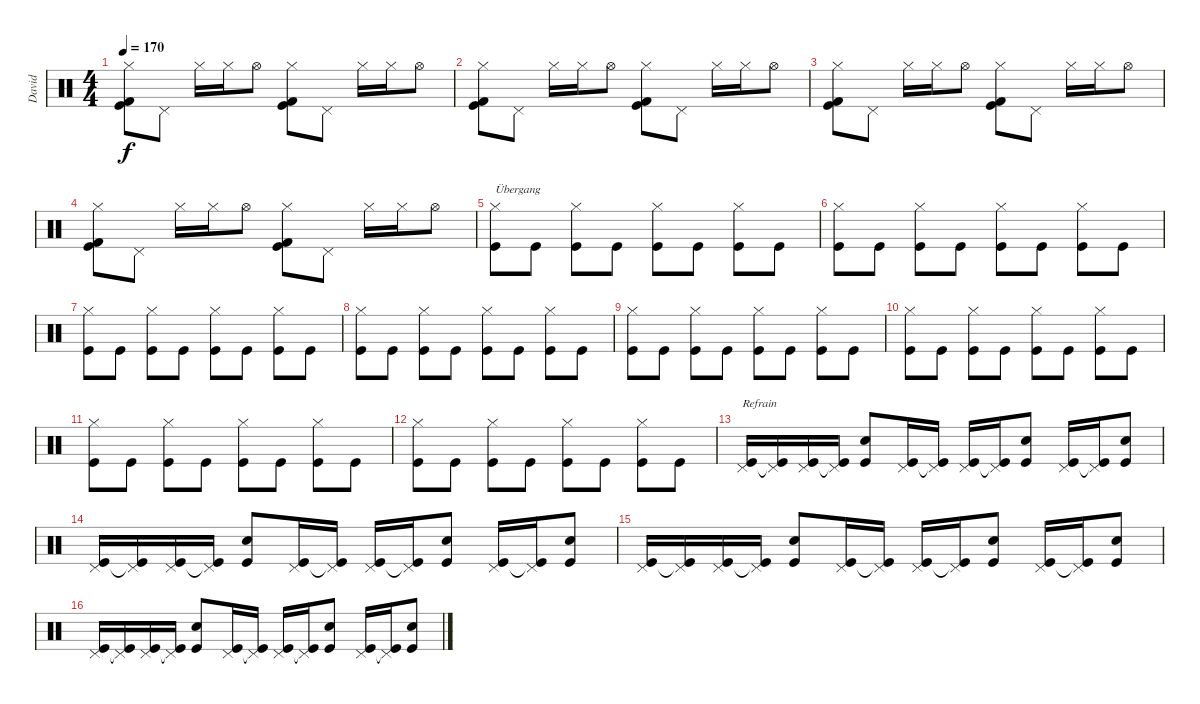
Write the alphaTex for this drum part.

\track ("David" "David") {instrument percussion}
\staff {score}
\articulation defaults
\ts (4 4)
\tempo 170
\clef neutral
\ks c
("Hi-Hat (closed)" "Kick (hit) 2" "Kick (hit)").8{dy f} "Pedal Hi-Hat (hit)".8 "Hi-Hat (closed)".16 "Hi-Hat (closed)".16 "Hi-Hat (open)".8 ("Hi-Hat (closed)" "Kick (hit) 2" "Kick (hit)").8 "Pedal Hi-Hat (hit)".8 "Hi-Hat (closed)".16 "Hi-Hat (closed)".16 "Hi-Hat (open)".8 |
("Hi-Hat (closed)" "Kick (hit) 2" "Kick (hit)").8 "Pedal Hi-Hat (hit)".8 "Hi-Hat (closed)".16 "Hi-Hat (closed)".16 "Hi-Hat (open)".8 ("Hi-Hat (closed)" "Kick (hit) 2" "Kick (hit)").8 "Pedal Hi-Hat (hit)".8 "Hi-Hat (closed)".16 "Hi-Hat (closed)".16 "Hi-Hat (open)".8 |
("Hi-Hat (closed)" "Kick (hit) 2" "Kick (hit)").8 "Pedal Hi-Hat (hit)".8 "Hi-Hat (closed)".16 "Hi-Hat (closed)".16 "Hi-Hat (open)".8 ("Hi-Hat (closed)" "Kick (hit) 2" "Kick (hit)").8 "Pedal Hi-Hat (hit)".8 "Hi-Hat (closed)".16 "Hi-Hat (closed)".16 "Hi-Hat (open)".8 |
("Hi-Hat (closed)" "Kick (hit) 2" "Kick (hit)").8 "Pedal Hi-Hat (hit)".8 "Hi-Hat (closed)".16 "Hi-Hat (closed)".16 "Hi-Hat (open)".8 ("Hi-Hat (closed)" "Kick (hit) 2" "Kick (hit)").8 "Pedal Hi-Hat (hit)".8 "Hi-Hat (closed)".16 "Hi-Hat (closed)".16 "Hi-Hat (open)".8 |
("Hi-Hat (closed)" "Kick (hit)").8{txt "Übergang"} "Kick (hit)".8 ("Hi-Hat (closed)" "Kick (hit)").8 "Kick (hit)".8 ("Hi-Hat (closed)" "Kick (hit)").8 "Kick (hit)".8 ("Hi-Hat (closed)" "Kick (hit)").8 "Kick (hit)".8 |
("Hi-Hat (closed)" "Kick (hit)").8 "Kick (hit)".8 ("Hi-Hat (closed)" "Kick (hit)").8 "Kick (hit)".8 ("Hi-Hat (closed)" "Kick (hit)").8 "Kick (hit)".8 ("Hi-Hat (closed)" "Kick (hit)").8 "Kick (hit)".8 |
("Hi-Hat (closed)" "Kick (hit)").8 "Kick (hit)".8 ("Hi-Hat (closed)" "Kick (hit)").8 "Kick (hit)".8 ("Hi-Hat (closed)" "Kick (hit)").8 "Kick (hit)".8 ("Hi-Hat (closed)" "Kick (hit)").8 "Kick (hit)".8 |
("Hi-Hat (closed)" "Kick (hit)").8 "Kick (hit)".8 ("Hi-Hat (closed)" "Kick (hit)").8 "Kick (hit)".8 ("Hi-Hat (closed)" "Kick (hit)").8 "Kick (hit)".8 ("Hi-Hat (closed)" "Kick (hit)").8 "Kick (hit)".8 |
("Hi-Hat (closed)" "Kick (hit)").8 "Kick (hit)".8 ("Hi-Hat (closed)" "Kick (hit)").8 "Kick (hit)".8 ("Hi-Hat (closed)" "Kick (hit)").8 "Kick (hit)".8 ("Hi-Hat (closed)" "Kick (hit)").8 "Kick (hit)".8 |
("Hi-Hat (closed)" "Kick (hit)").8 "Kick (hit)".8 ("Hi-Hat (closed)" "Kick (hit)").8 "Kick (hit)".8 ("Hi-Hat (closed)" "Kick (hit)").8 "Kick (hit)".8 ("Hi-Hat (closed)" "Kick (hit)").8 "Kick (hit)".8 |
("Hi-Hat (closed)" "Kick (hit)").8 "Kick (hit)".8 ("Hi-Hat (closed)" "Kick (hit)").8 "Kick (hit)".8 ("Hi-Hat (closed)" "Kick (hit)").8 "Kick (hit)".8 ("Hi-Hat (closed)" "Kick (hit)").8 "Kick (hit)".8 |
("Hi-Hat (closed)" "Kick (hit)").8 "Kick (hit)".8 ("Hi-Hat (closed)" "Kick (hit)").8 "Kick (hit)".8 ("Hi-Hat (closed)" "Kick (hit)").8 "Kick (hit)".8 ("Hi-Hat (closed)" "Kick (hit)").8 "Kick (hit)".8 |
("Pedal Hi-Hat (hit)" "Kick (hit)").16{txt "Refrain"} ("Pedal Hi-Hat (hit)" "Kick (hit)"{t}).16 ("Pedal Hi-Hat (hit)" "Kick (hit)").16 ("Pedal Hi-Hat (hit)" "Kick (hit)"{t}).16 ("Snare (hit) 2" "Kick (hit)").8 ("Pedal Hi-Hat (hit)" "Kick (hit)").16 ("Pedal Hi-Hat (hit)" "Kick (hit)"{t}).16 ("Pedal Hi-Hat (hit)" "Kick (hit)").16 ("Pedal Hi-Hat (hit)" "Kick (hit)"{t}).16 ("Snare (hit) 2" "Kick (hit)").8 ("Pedal Hi-Hat (hit)" "Kick (hit)").16 ("Pedal Hi-Hat (hit)" "Kick (hit)"{t}).16 ("Snare (hit) 2" "Kick (hit)").8 |
("Pedal Hi-Hat (hit)" "Kick (hit)").16 ("Pedal Hi-Hat (hit)" "Kick (hit)"{t}).16 ("Pedal Hi-Hat (hit)" "Kick (hit)").16 ("Pedal Hi-Hat (hit)" "Kick (hit)"{t}).16 ("Snare (hit) 2" "Kick (hit)").8 ("Pedal Hi-Hat (hit)" "Kick (hit)").16 ("Pedal Hi-Hat (hit)" "Kick (hit)"{t}).16 ("Pedal Hi-Hat (hit)" "Kick (hit)").16 ("Pedal Hi-Hat (hit)" "Kick (hit)"{t}).16 ("Snare (hit) 2" "Kick (hit)").8 ("Pedal Hi-Hat (hit)" "Kick (hit)").16 ("Pedal Hi-Hat (hit)" "Kick (hit)"{t}).16 ("Snare (hit) 2" "Kick (hit)").8 |
("Pedal Hi-Hat (hit)" "Kick (hit)").16 ("Pedal Hi-Hat (hit)" "Kick (hit)"{t}).16 ("Pedal Hi-Hat (hit)" "Kick (hit)").16 ("Pedal Hi-Hat (hit)" "Kick (hit)"{t}).16 ("Snare (hit) 2" "Kick (hit)").8 ("Pedal Hi-Hat (hit)" "Kick (hit)").16 ("Pedal Hi-Hat (hit)" "Kick (hit)"{t}).16 ("Pedal Hi-Hat (hit)" "Kick (hit)").16 ("Pedal Hi-Hat (hit)" "Kick (hit)"{t}).16 ("Snare (hit) 2" "Kick (hit)").8 ("Pedal Hi-Hat (hit)" "Kick (hit)").16 ("Pedal Hi-Hat (hit)" "Kick (hit)"{t}).16 ("Snare (hit) 2" "Kick (hit)").8 |
("Pedal Hi-Hat (hit)" "Kick (hit)").16 ("Pedal Hi-Hat (hit)" "Kick (hit)"{t}).16 ("Pedal Hi-Hat (hit)" "Kick (hit)").16 ("Pedal Hi-Hat (hit)" "Kick (hit)"{t}).16 ("Snare (hit) 2" "Kick (hit)").8 ("Pedal Hi-Hat (hit)" "Kick (hit)").16 ("Pedal Hi-Hat (hit)" "Kick (hit)"{t}).16 ("Pedal Hi-Hat (hit)" "Kick (hit)").16 ("Pedal Hi-Hat (hit)" "Kick (hit)"{t}).16 ("Snare (hit) 2" "Kick (hit)").8 ("Pedal Hi-Hat (hit)" "Kick (hit)").16 ("Pedal Hi-Hat (hit)" "Kick (hit)"{t}).16 ("Snare (hit) 2" "Kick (hit)").8
